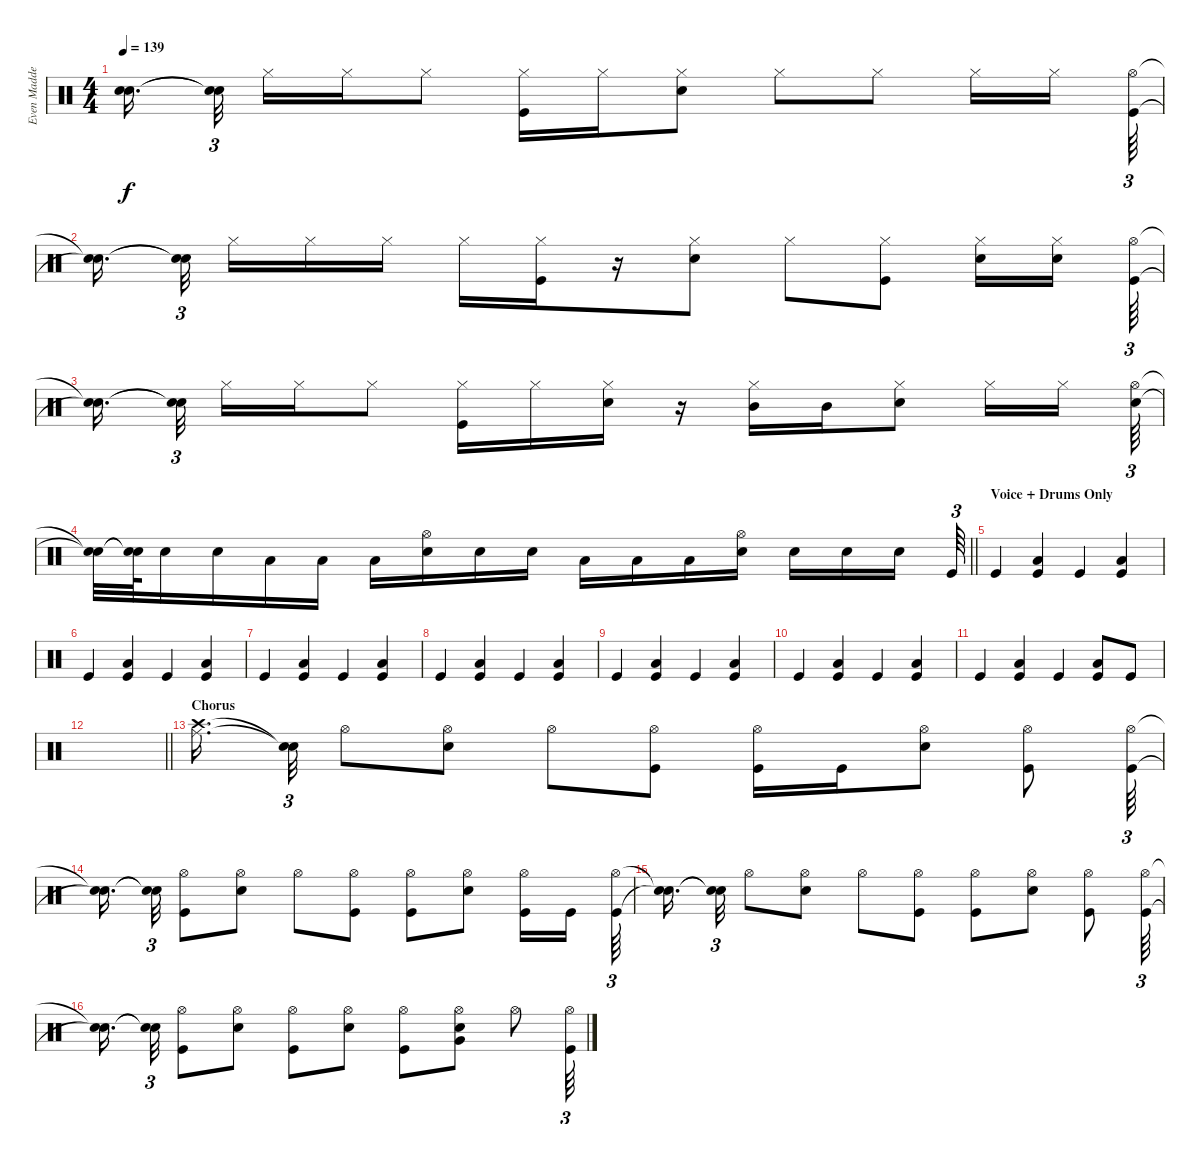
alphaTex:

\track ("Even Madden - Drums" "Even Madde") {instrument percussion}
\staff {score}
\articulation defaults
\ts (4 4)
\tempo 139
\clef neutral
\ks c
("Snare (hit)"{t} "Snare (hit)"{t}).16{d dy f beam splitsecondary} ("Snare (hit)"{t} "Snare (hit)"{t}).32{tu (3 2) beam splitsecondary} "Hi-Hat (closed)".16 "Hi-Hat (closed)".16 "Hi-Hat (closed)".8 ("Kick (hit)" "Hi-Hat (closed)").16 "Hi-Hat (closed)".16 ("Hi-Hat (closed)" "Snare (hit) 2").8 "Hi-Hat (closed)".8 "Hi-Hat (closed)".8 "Hi-Hat (closed)".16 "Hi-Hat (closed)".16{beam splitsecondary} ("Kick (hit)" "Hi-Hat (open)").64{tu (3 2)} |
("Snare (hit)"{t} "Snare (hit)"{t}).16{d beam splitsecondary} ("Snare (hit)"{t} "Snare (hit)"{t}).32{tu (3 2) beam splitsecondary} "Hi-Hat (closed)".16 "Hi-Hat (closed)".16 "Hi-Hat (closed)".16 "Hi-Hat (closed)".16 ("Kick (hit)" "Hi-Hat (closed)").16 r.16 ("Hi-Hat (closed)" "Snare (hit) 2").8 "Hi-Hat (closed)".8 ("Hi-Hat (closed)" "Kick (hit)").8 ("Hi-Hat (closed)" "Snare (hit) 2").16 ("Hi-Hat (closed)" "Snare (hit) 2").16{beam splitsecondary} ("Kick (hit)" "Hi-Hat (open)").64{tu (3 2)} |
("Snare (hit)"{t} "Snare (hit)"{t}).16{d beam splitsecondary} ("Snare (hit)"{t} "Snare (hit)"{t}).32{tu (3 2) beam splitsecondary} "Hi-Hat (closed)".16 "Hi-Hat (closed)".16 "Hi-Hat (closed)".8 ("Kick (hit)" "Hi-Hat (closed)").16 "Hi-Hat (closed)".16 ("Hi-Hat (closed)" "Snare (hit) 2").16 r.16 ("Hi-Hat (closed)" "Mid Tom (hit)").16 "Mid Tom (hit)".16 ("Hi-Hat (closed)" "Snare (hit) 2").8 "Hi-Hat (closed)".16 "Hi-Hat (closed)".16{beam splitsecondary} ("Snare (hit) 2" "Hi-Hat (open)").64{tu (3 2)} |
\barLineRight lightlight
("Snare (hit)"{t} "Snare (hit)"{t}).32 ("Snare (hit)"{t} "Snare (hit)"{t}).64 "Snare (hit) 2".16 "Snare (hit) 2".16 "Low Tom (hit)".16 "Low Tom (hit)".16 "Low Tom (hit)".16 ("Snare (hit) 2" "Hi-Hat (open)").16 "Snare (hit) 2".16 "Snare (hit) 2".16 "Low Tom (hit)".16 "Low Tom (hit)".16 "Low Tom (hit)".16 ("Snare (hit) 2" "Hi-Hat (open)").16 "Snare (hit) 2".16 "Snare (hit) 2".16 "Snare (hit) 2".16{beam splitsecondary} "Kick (hit)".64{tu (3 2)} |
\section ("" "Voice + Drums Only")
"Kick (hit)".4 ("Kick (hit)" "Low Floor Tom (hit)").4 "Kick (hit)".4 ("Kick (hit)" "Low Floor Tom (hit)").4 |
"Kick (hit)".4 ("Kick (hit)" "Low Floor Tom (hit)").4 "Kick (hit)".4 ("Kick (hit)" "Low Floor Tom (hit)").4 |
"Kick (hit)".4 ("Kick (hit)" "Low Floor Tom (hit)").4 "Kick (hit)".4 ("Kick (hit)" "Low Floor Tom (hit)").4 |
"Kick (hit)".4 ("Kick (hit)" "Low Floor Tom (hit)").4 "Kick (hit)".4 ("Kick (hit)" "Low Floor Tom (hit)").4 |
"Kick (hit)".4 ("Kick (hit)" "Low Floor Tom (hit)").4 "Kick (hit)".4 ("Kick (hit)" "Low Floor Tom (hit)").4 |
"Kick (hit)".4 ("Kick (hit)" "Low Floor Tom (hit)").4 "Kick (hit)".4 ("Kick (hit)" "Low Floor Tom (hit)").4 |
"Kick (hit)".4 ("Kick (hit)" "Low Floor Tom (hit)").4 "Kick (hit)".4 ("Kick (hit)" "Low Floor Tom (hit)").8 "Kick (hit)".8 |
\barLineRight lightlight
|
\section ("" "Chorus")
("Crash high (hit)" "Ride (middle)").16{d beam splitsecondary} ("Snare (hit)"{t} "Snare (hit)"{t}).32{tu (3 2)} "Hi-Hat (open)".8 ("Hi-Hat (open)" "Snare (hit) 2").8 "Hi-Hat (open)".8 ("Hi-Hat (open)" "Kick (hit)").8 ("Hi-Hat (open)" "Kick (hit)").16 "Kick (hit)".16 ("Hi-Hat (open)" "Snare (hit) 2").8 ("Hi-Hat (open)" "Kick (hit)").8 ("Hi-Hat (open)" "Kick (hit)").64{tu (3 2)} |
("Snare (hit)"{t} "Snare (hit)"{t}).16{d beam splitsecondary} ("Snare (hit)"{t} "Snare (hit)"{t}).32{tu (3 2)} ("Hi-Hat (open)" "Kick (hit)").8 ("Hi-Hat (open)" "Snare (hit) 2").8 "Hi-Hat (open)".8 ("Hi-Hat (open)" "Kick (hit)").8 ("Hi-Hat (open)" "Kick (hit)").8 ("Hi-Hat (open)" "Snare (hit) 2").8 ("Hi-Hat (open)" "Kick (hit)").16 "Kick (hit)".16{beam splitsecondary} ("Hi-Hat (open)" "Kick (hit)").64{tu (3 2)} |
("Snare (hit)"{t} "Snare (hit)"{t}).16{d beam splitsecondary} ("Snare (hit)"{t} "Snare (hit)"{t}).32{tu (3 2)} "Hi-Hat (open)".8 ("Hi-Hat (open)" "Snare (hit) 2").8 "Hi-Hat (open)".8 ("Hi-Hat (open)" "Kick (hit)").8 ("Hi-Hat (open)" "Kick (hit)").8 ("Hi-Hat (open)" "Snare (hit) 2").8 ("Hi-Hat (open)" "Kick (hit)").8 ("Hi-Hat (open)" "Kick (hit)").64{tu (3 2)} |
("Snare (hit)"{t} "Snare (hit)"{t}).16{d beam splitsecondary} ("Snare (hit)"{t} "Snare (hit)"{t}).32{tu (3 2)} ("Hi-Hat (open)" "Kick (hit)").8 ("Hi-Hat (open)" "Snare (hit) 2").8 ("Hi-Hat (open)" "Kick (hit)").8 ("Hi-Hat (open)" "Snare (hit) 2").8 ("Hi-Hat (open)" "Kick (hit)").8 ("Hi-Hat (open)" "Snare (hit) 2" "Very Low Tom (hit)").8 "Hi-Hat (open)".8 ("Hi-Hat (open)" "Kick (hit)").64{tu (3 2)}
